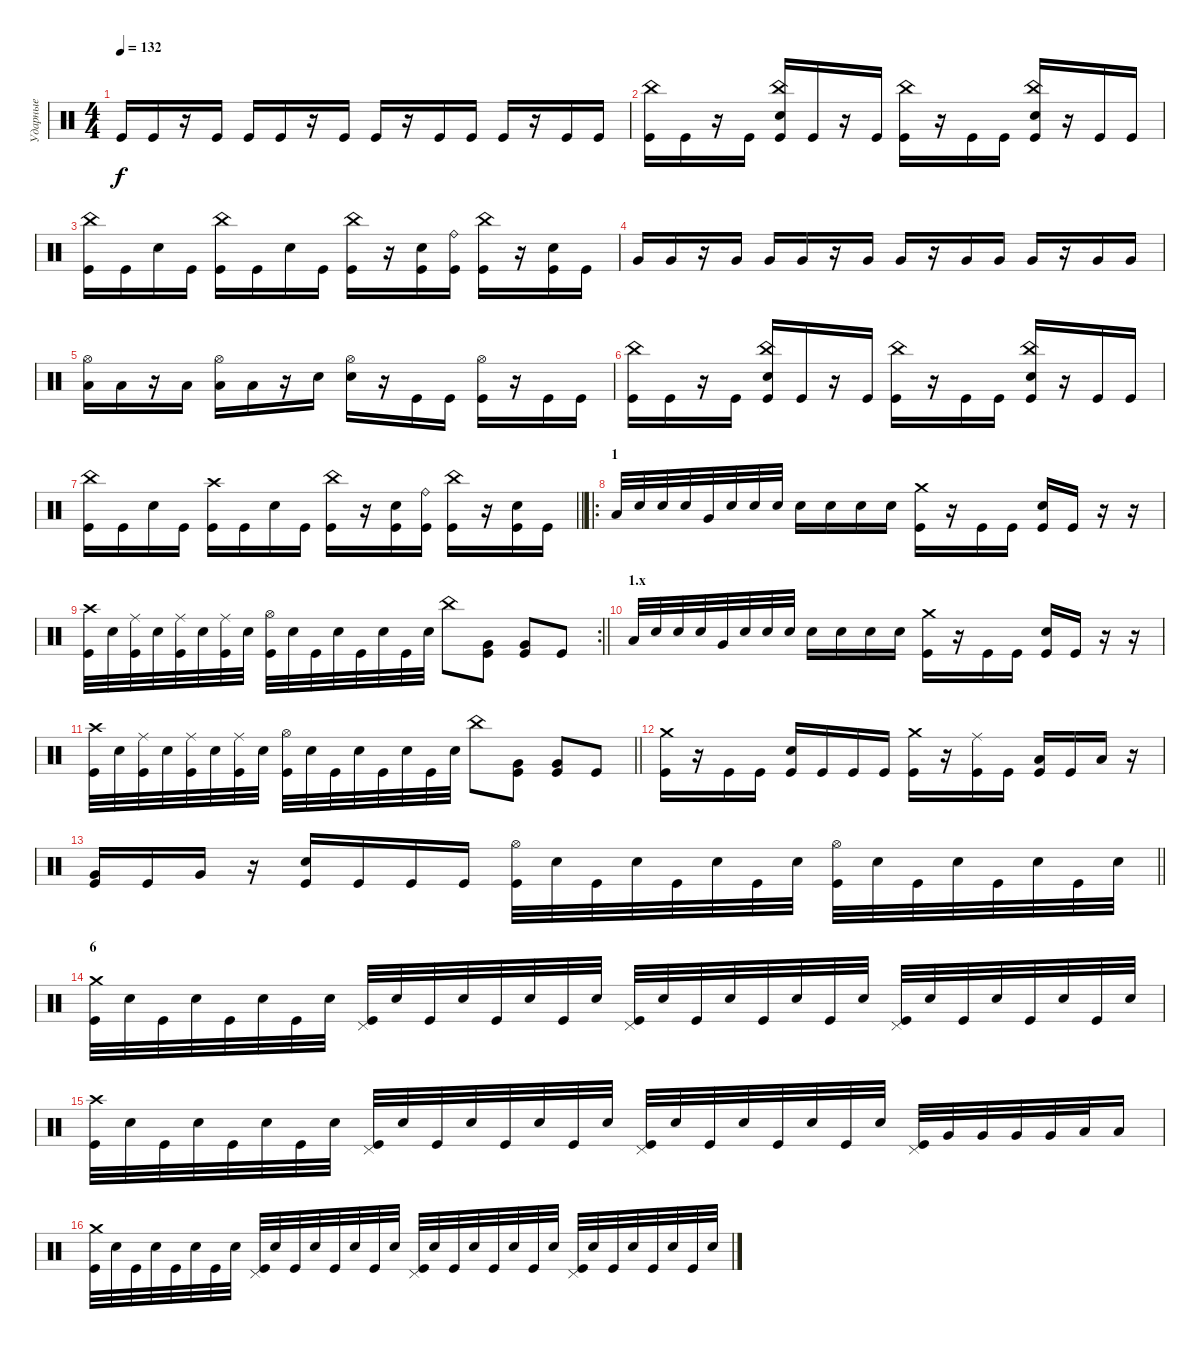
\track ("Ударные" "Ударные") {instrument percussion}
\staff {score}
\articulation defaults
\ts (4 4)
\tempo 132
\clef neutral
\ks c "Kick (hit)".16{dy f} "Kick (hit)".16
r.16 "Kick (hit)".16 "Kick (hit)".16 "Kick (hit)".16 r.16 "Kick (hit)".16 "Kick (hit)".16 r.16 "Kick (hit)".16 "Kick (hit)".16 "Kick (hit)".16 r.16 "Kick (hit)".16 "Kick (hit)".16 |
("China (hit)" "Kick (hit)").16 "Kick (hit)".16 r.16 "Kick (hit)".16 ("China (hit)" "Electric Snare (hit)" "Kick (hit)").16 "Kick (hit)".16 r.16 "Kick (hit)".16 ("China (hit)" "Kick (hit)").16 r.16 "Kick (hit)".16 "Kick (hit)".16 ("China (hit)" "Electric Snare (hit)" "Kick (hit)").16 r.16 "Kick (hit)".16 "Kick (hit)".16 |
("China (hit)" "Kick (hit)").16 "Kick (hit)".16 "Electric Snare (hit)".16 "Kick (hit)".16 ("China (hit)" "Kick (hit)").16 "Kick (hit)".16 "Electric Snare (hit)".16 "Kick (hit)".16 ("China (hit)" "Kick (hit)").16 r.16 ("Electric Snare (hit)" "Kick (hit)").16 ("Ride (bell)" "Kick (hit)").16 ("China (hit)" "Kick (hit)").16 r.16 ("Electric Snare (hit)" "Kick (hit)").16 "Kick (hit)".16 |
"Very Low Tom (hit)".16 "Very Low Tom (hit)".16 r.16 "Very Low Tom (hit)".16 "Very Low Tom (hit)".16 "Very Low Tom (hit)".16 r.16 "Very Low Tom (hit)".16 "Very Low Tom (hit)".16 r.16 "Very Low Tom (hit)".16 "Very Low Tom (hit)".16 "Very Low Tom (hit)".16 r.16 "Very Low Tom (hit)".16 "Very Low Tom (hit)".16 |
("Hi-Hat (open)" "Low Floor Tom (hit)").16 "Low Floor Tom (hit)".16 r.16 "Low Floor Tom (hit)".16 ("Hi-Hat (open)" "Low Floor Tom (hit)").16 "Low Floor Tom (hit)".16 r.16 "Electric Snare (hit)".16 ("Hi-Hat (open)" "Electric Snare (hit)").16 r.16 "Kick (hit)".16 "Kick (hit)".16 ("Hi-Hat (open)" "Kick (hit)").16 r.16 "Kick (hit)".16 "Kick (hit)".16 |
("China (hit)" "Kick (hit)").16 "Kick (hit)".16 r.16 "Kick (hit)".16 ("China (hit)" "Electric Snare (hit)" "Kick (hit)").16 "Kick (hit)".16 r.16 "Kick (hit)".16 ("China (hit)" "Kick (hit)").16 r.16 "Kick (hit)".16 "Kick (hit)".16 ("China (hit)" "Electric Snare (hit)" "Kick (hit)").16 r.16 "Kick (hit)".16 "Kick (hit)".16 |
\barLineRight lightlight
("China (hit)" "Kick (hit)").16 "Kick (hit)".16 "Electric Snare (hit)".16 "Kick (hit)".16 ("Crash high (hit)" "Kick (hit)").16 "Kick (hit)".16 "Electric Snare (hit)".16 "Kick (hit)".16 ("China (hit)" "Kick (hit)").16 r.16 ("Electric Snare (hit)" "Kick (hit)").16 ("Ride (bell)" "Kick (hit)").16 ("China (hit)" "Kick (hit)").16 r.16 ("Electric Snare (hit)" "Kick (hit)").16 "Kick (hit)".16 |
\ro
\section ("" "1")
"Low Tom (hit)".32 "Electric Snare (hit)".32 "Electric Snare (hit)".32 "Electric Snare (hit)".32 "Very Low Tom (hit)".32 "Electric Snare (hit)".32 "Electric Snare (hit)".32 "Electric Snare (hit)".32 "Electric Snare (hit)".16 "Electric Snare (hit)".16 "Electric Snare (hit)".16 "Electric Snare (hit)".16 ("Crash medium (hit)" "Kick (hit)").16 r.16 "Kick (hit)".16 "Kick (hit)".16 ("Electric Snare (hit)" "Kick (hit)").16 "Kick (hit)".16 r.16 r.16 |
\rc 2
\barLineRight lightlight
("Crash high (hit)" "Kick (hit)").32 "Electric Snare (hit)".32 ("Ride (middle)" "Kick (hit)").32 "Electric Snare (hit)".32 ("Ride (middle)" "Kick (hit)").32 "Electric Snare (hit)".32 ("Ride (middle)" "Kick (hit)").32 "Electric Snare (hit)".32 ("Hi-Hat (open)" "Kick (hit)").32 "Electric Snare (hit)".32 "Kick (hit)".32 "Electric Snare (hit)".32 "Kick (hit)".32 "Electric Snare (hit)".32 "Kick (hit)".32 "Electric Snare (hit)".32 "China (hit)".8 ("Very Low Tom (hit)" "Kick (hit)").8 ("Very Low Tom (hit)" "Kick (hit)").8 "Kick (hit)".8 |
\section ("" "1.x")
"Low Tom (hit)".32 "Electric Snare (hit)".32 "Electric Snare (hit)".32 "Electric Snare (hit)".32 "Very Low Tom (hit)".32 "Electric Snare (hit)".32 "Electric Snare (hit)".32 "Electric Snare (hit)".32 "Electric Snare (hit)".16 "Electric Snare (hit)".16 "Electric Snare (hit)".16 "Electric Snare (hit)".16 ("Crash medium (hit)" "Kick (hit)").16 r.16 "Kick (hit)".16 "Kick (hit)".16 ("Electric Snare (hit)" "Kick (hit)").16 "Kick (hit)".16 r.16 r.16 |
\barLineRight lightlight
("Crash high (hit)" "Kick (hit)").32 "Electric Snare (hit)".32 ("Ride (middle)" "Kick (hit)").32 "Electric Snare (hit)".32 ("Ride (middle)" "Kick (hit)").32 "Electric Snare (hit)".32 ("Ride (middle)" "Kick (hit)").32 "Electric Snare (hit)".32 ("Hi-Hat (open)" "Kick (hit)").32 "Electric Snare (hit)".32 "Kick (hit)".32 "Electric Snare (hit)".32 "Kick (hit)".32 "Electric Snare (hit)".32 "Kick (hit)".32 "Electric Snare (hit)".32 "China (hit)".8 ("Very Low Tom (hit)" "Kick (hit)").8 ("Very Low Tom (hit)" "Kick (hit)").8 "Kick (hit)".8 |
("Crash medium (hit)" "Kick (hit)").16 r.16 "Kick (hit)".16 "Kick (hit)".16 ("Electric Snare (hit)" "Kick (hit)").16 "Kick (hit)".16 "Kick (hit)".16 "Kick (hit)".16 ("Crash medium (hit)" "Kick (hit)").16 r.16 ("Ride (middle)" "Kick (hit)").16 "Kick (hit)".16 ("Low Tom (hit)" "Kick (hit)").16 "Kick (hit)".16 "Low Tom (hit)".16 r.16 |
\barLineRight lightlight
("Very Low Tom (hit)" "Kick (hit)").16 "Kick (hit)".16 "Very Low Tom (hit)".16 r.16 ("Electric Snare (hit)" "Kick (hit)").16 "Kick (hit)".16 "Kick (hit)".16 "Kick (hit)".16 ("Hi-Hat (open)" "Kick (hit)").32 "Electric Snare (hit)".32 "Kick (hit)".32 "Electric Snare (hit)".32 "Kick (hit)".32 "Electric Snare (hit)".32 "Kick (hit)".32 "Electric Snare (hit)".32 ("Hi-Hat (open)" "Kick (hit)").32 "Electric Snare (hit)".32 "Kick (hit)".32 "Electric Snare (hit)".32 "Kick (hit)".32 "Electric Snare (hit)".32 "Kick (hit)".32 "Electric Snare (hit)".32 |
\section ("" "6")
("Crash medium (hit)" "Kick (hit)").32 "Electric Snare (hit)".32 "Kick (hit)".32 "Electric Snare (hit)".32 "Kick (hit)".32 "Electric Snare (hit)".32 "Kick (hit)".32 "Electric Snare (hit)".32 ("Pedal Hi-Hat (hit)" "Kick (hit)").32 "Electric Snare (hit)".32 "Kick (hit)".32 "Electric Snare (hit)".32 "Kick (hit)".32 "Electric Snare (hit)".32 "Kick (hit)".32 "Electric Snare (hit)".32 ("Pedal Hi-Hat (hit)" "Kick (hit)").32 "Electric Snare (hit)".32 "Kick (hit)".32 "Electric Snare (hit)".32 "Kick (hit)".32 "Electric Snare (hit)".32 "Kick (hit)".32 "Electric Snare (hit)".32 ("Pedal Hi-Hat (hit)" "Kick (hit)").32 "Electric Snare (hit)".32 "Kick (hit)".32 "Electric Snare (hit)".32 "Kick (hit)".32 "Electric Snare (hit)".32 "Kick (hit)".32 "Electric Snare (hit)".32 |
("Crash high (hit)" "Kick (hit)").32 "Electric Snare (hit)".32 "Kick (hit)".32 "Electric Snare (hit)".32 "Kick (hit)".32 "Electric Snare (hit)".32 "Kick (hit)".32 "Electric Snare (hit)".32 ("Pedal Hi-Hat (hit)" "Kick (hit)").32 "Electric Snare (hit)".32 "Kick (hit)".32 "Electric Snare (hit)".32 "Kick (hit)".32 "Electric Snare (hit)".32 "Kick (hit)".32 "Electric Snare (hit)".32 ("Pedal Hi-Hat (hit)" "Kick (hit)").32 "Electric Snare (hit)".32 "Kick (hit)".32 "Electric Snare (hit)".32 "Kick (hit)".32 "Electric Snare (hit)".32 "Kick (hit)".32 "Electric Snare (hit)".32 ("Pedal Hi-Hat (hit)" "Kick (hit)").32 "Very Low Tom (hit)".32 "Very Low Tom (hit)".32 "Very Low Tom (hit)".32 "Very Low Tom (hit)".32 "Low Floor Tom (hit)".32 "Low Floor Tom (hit)".16 |
("Crash medium (hit)" "Kick (hit)").32 "Electric Snare (hit)".32 "Kick (hit)".32 "Electric Snare (hit)".32 "Kick (hit)".32 "Electric Snare (hit)".32 "Kick (hit)".32 "Electric Snare (hit)".32 ("Pedal Hi-Hat (hit)" "Kick (hit)").32 "Electric Snare (hit)".32 "Kick (hit)".32 "Electric Snare (hit)".32 "Kick (hit)".32 "Electric Snare (hit)".32 "Kick (hit)".32 "Electric Snare (hit)".32 ("Pedal Hi-Hat (hit)" "Kick (hit)").32 "Electric Snare (hit)".32 "Kick (hit)".32 "Electric Snare (hit)".32 "Kick (hit)".32 "Electric Snare (hit)".32 "Kick (hit)".32 "Electric Snare (hit)".32 ("Pedal Hi-Hat (hit)" "Kick (hit)").32 "Electric Snare (hit)".32 "Kick (hit)".32 "Electric Snare (hit)".32 "Kick (hit)".32 "Electric Snare (hit)".32 "Kick (hit)".32 "Electric Snare (hit)".32
